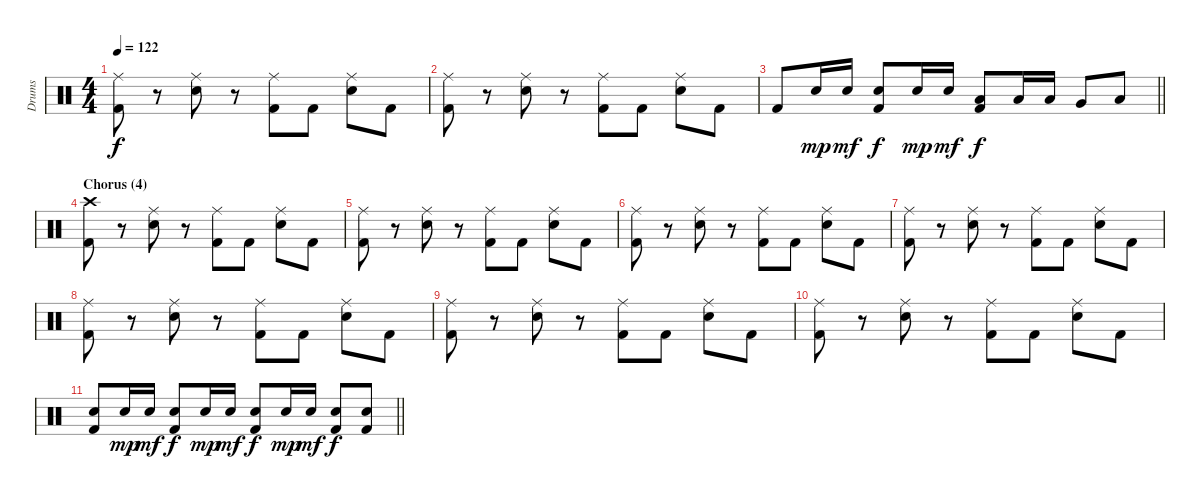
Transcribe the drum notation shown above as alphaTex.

\track ("Drums" "Drums") {instrument percussion}
\staff {score}
\articulation defaults
\ts (4 4)
\tempo 122
\clef neutral
\ks c
("Kick (hit) 2" "Ride (middle)").8{dy f} r.8 ("Snare (hit) 2" "Ride (middle)").8 r.8 ("Kick (hit) 2" "Ride (middle)").8 "Kick (hit) 2".8 ("Snare (hit) 2" "Ride (middle)").8 "Kick (hit) 2".8 |
("Kick (hit) 2" "Ride (middle)").8 r.8 ("Snare (hit) 2" "Ride (middle)").8 r.8 ("Kick (hit) 2" "Ride (middle)").8 "Kick (hit) 2".8 ("Snare (hit) 2" "Ride (middle)").8 "Kick (hit) 2".8 |
\barLineRight lightlight "Kick (hit) 2".8 "Snare (hit) 2".16{dy mp} "Snare (hit) 2".16{dy mf}
("Kick (hit) 2" "Snare (hit) 2").8{dy f} "Snare (hit) 2".16{dy mp} "Snare (hit) 2".16{dy mf} ("Kick (hit) 2" "Low Tom (hit)").8{dy f} "Low Tom (hit)".16 "Low Tom (hit)".16 "Very Low Tom (hit)".8 "Low Floor Tom (hit)".8 |
\section ("" "Chorus (4)")
("Kick (hit) 2" "Crash high (hit)").8 r.8 ("Snare (hit) 2" "Ride (middle)").8 r.8 ("Kick (hit) 2" "Ride (middle)").8 "Kick (hit) 2".8 ("Snare (hit) 2" "Ride (middle)").8 "Kick (hit) 2".8 |
("Kick (hit) 2" "Ride (middle)").8 r.8 ("Snare (hit) 2" "Ride (middle)").8 r.8 ("Kick (hit) 2" "Ride (middle)").8 "Kick (hit) 2".8 ("Snare (hit) 2" "Ride (middle)").8 "Kick (hit) 2".8 |
("Kick (hit) 2" "Ride (middle)").8 r.8 ("Snare (hit) 2" "Ride (middle)").8 r.8 ("Kick (hit) 2" "Ride (middle)").8 "Kick (hit) 2".8 ("Snare (hit) 2" "Ride (middle)").8 "Kick (hit) 2".8 |
("Kick (hit) 2" "Ride (middle)").8{volume 0} r.8 ("Snare (hit) 2" "Ride (middle)").8 r.8 ("Kick (hit) 2" "Ride (middle)").8 "Kick (hit) 2".8 ("Snare (hit) 2" "Ride (middle)").8 "Kick (hit) 2".8 |
("Kick (hit) 2" "Ride (middle)").8 r.8 ("Snare (hit) 2" "Ride (middle)").8 r.8 ("Kick (hit) 2" "Ride (middle)").8 "Kick (hit) 2".8 ("Snare (hit) 2" "Ride (middle)").8 "Kick (hit) 2".8 |
("Kick (hit) 2" "Ride (middle)").8 r.8 ("Snare (hit) 2" "Ride (middle)").8 r.8 ("Kick (hit) 2" "Ride (middle)").8 "Kick (hit) 2".8 ("Snare (hit) 2" "Ride (middle)").8 "Kick (hit) 2".8 |
("Kick (hit) 2" "Ride (middle)").8 r.8 ("Snare (hit) 2" "Ride (middle)").8 r.8 ("Kick (hit) 2" "Ride (middle)").8 "Kick (hit) 2".8 ("Snare (hit) 2" "Ride (middle)").8 "Kick (hit) 2".8 |
\barLineRight lightlight
("Kick (hit) 2" "Snare (hit) 2").8 "Snare (hit) 2".16{dy mp} "Snare (hit) 2".16{dy mf} ("Kick (hit) 2" "Snare (hit) 2").8{dy f} "Snare (hit) 2".16{dy mp} "Snare (hit) 2".16{dy mf} ("Kick (hit) 2" "Snare (hit) 2").8{dy f} "Snare (hit) 2".16{dy mp} "Snare (hit) 2".16{dy mf} ("Kick (hit) 2" "Snare (hit) 2").8{dy f} ("Kick (hit) 2" "Snare (hit) 2").8
